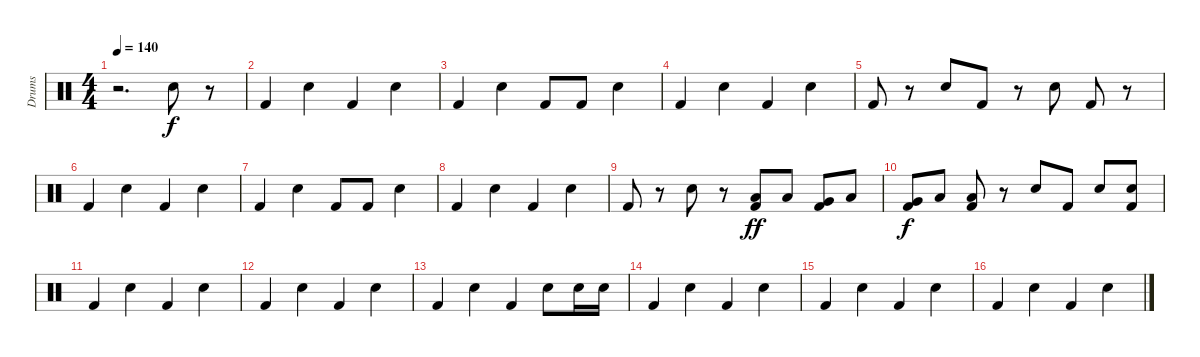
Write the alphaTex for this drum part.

\track ("Drums" "Drums") {instrument percussion}
\staff {score}
\articulation defaults
\ts (4 4)
\tempo 140
\clef neutral
\ks c
r.2{d dy f} "Snare (hit) 2".8 r.8 |
"Kick (hit) 2".4 "Snare (hit) 2".4 "Kick (hit) 2".4 "Snare (hit) 2".4 |
"Kick (hit) 2".4 "Snare (hit) 2".4 "Kick (hit) 2".8 "Kick (hit) 2".8 "Snare (hit) 2".4 |
"Kick (hit) 2".4 "Snare (hit) 2".4 "Kick (hit) 2".4 "Snare (hit) 2".4 |
"Kick (hit) 2".8 r.8 "Snare (hit) 2".8 "Kick (hit) 2".8 r.8 "Snare (hit) 2".8 "Kick (hit) 2".8 r.8 |
"Kick (hit) 2".4 "Snare (hit) 2".4 "Kick (hit) 2".4 "Snare (hit) 2".4 |
"Kick (hit) 2".4 "Snare (hit) 2".4 "Kick (hit) 2".8 "Kick (hit) 2".8 "Snare (hit) 2".4 |
"Kick (hit) 2".4 "Snare (hit) 2".4 "Kick (hit) 2".4 "Snare (hit) 2".4 |
"Kick (hit) 2".8 r.8 "Snare (hit) 2".8 r.8 ("Low Tom (hit)" "Kick (hit) 2").8{dy ff} "Low Tom (hit)".8 ("Very Low Tom (hit)" "Kick (hit) 2").8 "Low Floor Tom (hit)".8 |
("Very Low Tom (hit)" "Kick (hit) 2").8{dy f} "Low Floor Tom (hit)".8 ("Low Floor Tom (hit)" "Kick (hit) 2").8 r.8 "Snare (hit) 2".8 "Kick (hit) 2".8 "Snare (hit) 2".8 ("Snare (hit) 2" "Kick (hit) 2").8 |
"Kick (hit) 2".4 "Snare (hit) 2".4 "Kick (hit) 2".4 "Snare (hit) 2".4 |
"Kick (hit) 2".4 "Snare (hit) 2".4 "Kick (hit) 2".4 "Snare (hit) 2".4 |
"Kick (hit) 2".4 "Snare (hit) 2".4 "Kick (hit) 2".4 "Snare (hit) 2".8 "Snare (hit) 2".16 "Snare (hit) 2".16 |
"Kick (hit) 2".4 "Snare (hit) 2".4 "Kick (hit) 2".4 "Snare (hit) 2".4 |
"Kick (hit) 2".4 "Snare (hit) 2".4 "Kick (hit) 2".4 "Snare (hit) 2".4 |
"Kick (hit) 2".4 "Snare (hit) 2".4 "Kick (hit) 2".4 "Snare (hit) 2".4
